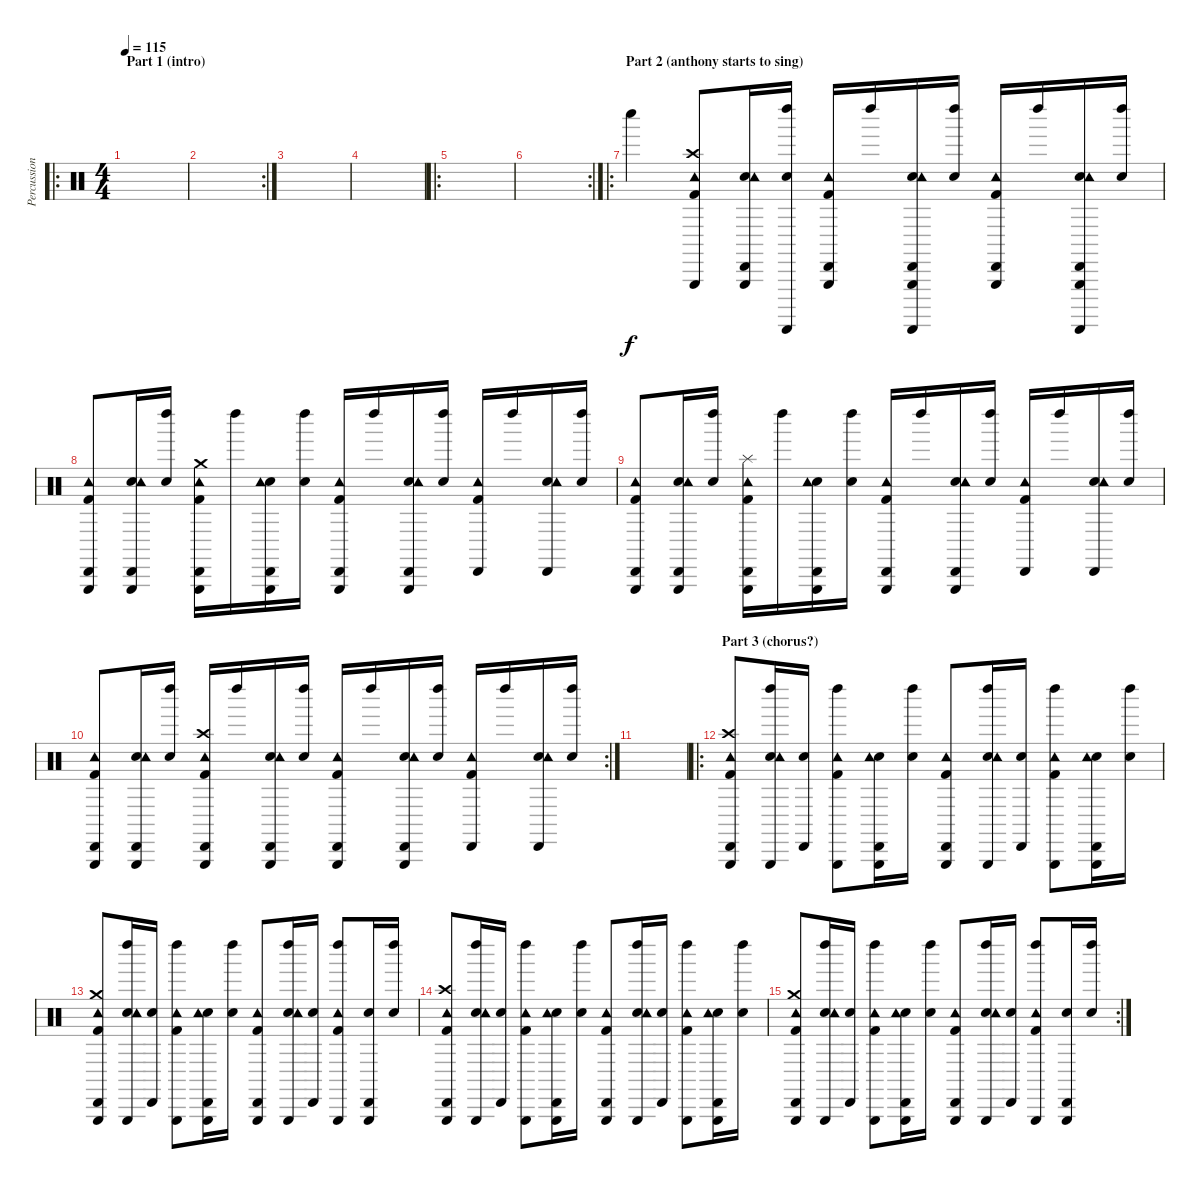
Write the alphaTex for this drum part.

\track ("Percussion" "Percussion") {instrument percussion}
\staff {score}
\articulation defaults
\ro
\ts (4 4)
\section ("" "Part 1 (intro)")
\tempo 115
\clef neutral
\ks c
|
\rc 2
|
|
|
\ro
|
\rc 2
|
\ro
\section ("" "Part 2 (anthony starts to sing)")
"Whistle low (hit)".4 ("Kick (hit) 2" "Tambourine (hit)" "Triangle (hit)" "Crash high (hit)").8 ("Cabasa (hit)" "Snare (hit) 2" "Tambourine (hit)" "Triangle (hit)").16 ("Left Maraca (hit)" "Snare (hit) 2" "Guiro (scrap-return)").16 ("Cabasa (hit)" "Kick (hit) 2" "Tambourine (hit)" "Triangle (hit)").16 "Left Maraca (hit)".16 ("Cabasa (hit)" "Snare (hit) 2" "Tambourine (hit)" "Triangle (hit)" "Guiro (scrap-return)").16 ("Left Maraca (hit)" "Snare (hit) 2").16 ("Cabasa (hit)" "Kick (hit) 2" "Tambourine (hit)" "Triangle (hit)").16 "Left Maraca (hit)".16 ("Cabasa (hit)" "Snare (hit) 2" "Tambourine (hit)" "Triangle (hit)" "Guiro (scrap-return)").16 ("Left Maraca (hit)" "Snare (hit) 2").16 |
("Kick (hit) 2" "Cabasa (hit)" "Tambourine (hit)" "Triangle (hit)").8 ("Cabasa (hit)" "Snare (hit) 2" "Tambourine (hit)" "Triangle (hit)").16 ("Left Maraca (hit)" "Snare (hit) 2").16 ("Cabasa (hit)" "Kick (hit) 2" "Tambourine (hit)" "Triangle (hit)" "Crash medium (hit)").16 "Left Maraca (hit)".16 ("Cabasa (hit)" "Snare (hit) 2" "Tambourine (hit)" "Triangle (hit)").16 ("Left Maraca (hit)" "Snare (hit) 2").16 ("Cabasa (hit)" "Kick (hit) 2" "Tambourine (hit)" "Triangle (hit)").16 "Left Maraca (hit)".16 ("Cabasa (hit)" "Snare (hit) 2" "Tambourine (hit)" "Triangle (hit)").16 ("Left Maraca (hit)" "Snare (hit) 2").16 ("Cabasa (hit)" "Kick (hit) 2" "Tambourine (hit)").16 "Left Maraca (hit)".16 ("Cabasa (hit)" "Snare (hit) 2" "Tambourine (hit)").16 ("Left Maraca (hit)" "Snare (hit) 2").16 |
("Kick (hit) 2" "Cabasa (hit)" "Tambourine (hit)" "Triangle (hit)").8 ("Cabasa (hit)" "Snare (hit) 2" "Tambourine (hit)" "Triangle (hit)").16 ("Left Maraca (hit)" "Snare (hit) 2").16 ("Cabasa (hit)" "Kick (hit) 2" "Tambourine (hit)" "Triangle (hit)" "Splash (hit)").16 "Left Maraca (hit)".16 ("Cabasa (hit)" "Snare (hit) 2" "Tambourine (hit)" "Triangle (hit)").16 ("Left Maraca (hit)" "Snare (hit) 2").16 ("Cabasa (hit)" "Kick (hit) 2" "Tambourine (hit)" "Triangle (hit)").16 "Left Maraca (hit)".16 ("Cabasa (hit)" "Snare (hit) 2" "Tambourine (hit)" "Triangle (hit)").16 ("Left Maraca (hit)" "Snare (hit) 2").16 ("Cabasa (hit)" "Kick (hit) 2" "Tambourine (hit)").16 "Left Maraca (hit)".16 ("Cabasa (hit)" "Snare (hit) 2" "Tambourine (hit)").16 ("Left Maraca (hit)" "Snare (hit) 2").16 |
\rc 2
("Kick (hit) 2" "Cabasa (hit)" "Tambourine (hit)" "Triangle (hit)").8 ("Cabasa (hit)" "Snare (hit) 2" "Tambourine (hit)" "Triangle (hit)").16 ("Left Maraca (hit)" "Snare (hit) 2").16 ("Cabasa (hit)" "Kick (hit) 2" "Tambourine (hit)" "Triangle (hit)" "Crash high (hit)").16 "Left Maraca (hit)".16 ("Cabasa (hit)" "Snare (hit) 2" "Tambourine (hit)" "Triangle (hit)").16 ("Left Maraca (hit)" "Snare (hit) 2").16 ("Cabasa (hit)" "Kick (hit) 2" "Tambourine (hit)" "Triangle (hit)").16 "Left Maraca (hit)".16 ("Cabasa (hit)" "Snare (hit) 2" "Tambourine (hit)" "Triangle (hit)").16 ("Left Maraca (hit)" "Snare (hit) 2").16 ("Cabasa (hit)" "Kick (hit) 2" "Tambourine (hit)").16 "Left Maraca (hit)".16 ("Cabasa (hit)" "Snare (hit) 2" "Tambourine (hit)").16 ("Left Maraca (hit)" "Snare (hit) 2").16 |
|
\ro
\section ("" "Part 3 (chorus?)")
("Kick (hit) 2" "Cabasa (hit)" "Tambourine (hit)" "Triangle (hit)" "Crash high (hit)").8 ("Snare (hit) 2" "Left Maraca (hit)" "Tambourine (hit)" "Triangle (hit)").16 ("Snare (hit) 2" "Cabasa (hit)").16 ("Kick (hit) 2" "Left Maraca (hit)" "Tambourine (hit)" "Triangle (hit)").8 ("Snare (hit) 2" "Cabasa (hit)" "Tambourine (hit)" "Triangle (hit)").16 ("Snare (hit) 2" "Left Maraca (hit)").16 ("Kick (hit) 2" "Cabasa (hit)" "Tambourine (hit)" "Triangle (hit)").8 ("Snare (hit) 2" "Left Maraca (hit)" "Tambourine (hit)" "Triangle (hit)").16 ("Snare (hit) 2" "Cabasa (hit)").16 ("Kick (hit) 2" "Left Maraca (hit)" "Tambourine (hit)" "Triangle (hit)").8 ("Snare (hit) 2" "Cabasa (hit)" "Tambourine (hit)" "Triangle (hit)").16 ("Snare (hit) 2" "Left Maraca (hit)").16 |
("Kick (hit) 2" "Cabasa (hit)" "Tambourine (hit)" "Triangle (hit)" "Crash medium (hit)").8 ("Snare (hit) 2" "Left Maraca (hit)" "Tambourine (hit)" "Triangle (hit)").16 ("Snare (hit) 2" "Cabasa (hit)").16 ("Kick (hit) 2" "Left Maraca (hit)" "Tambourine (hit)" "Triangle (hit)").8 ("Snare (hit) 2" "Cabasa (hit)" "Tambourine (hit)" "Triangle (hit)").16 ("Snare (hit) 2" "Left Maraca (hit)").16 ("Kick (hit) 2" "Cabasa (hit)" "Tambourine (hit)" "Triangle (hit)").8 ("Snare (hit) 2" "Left Maraca (hit)" "Tambourine (hit)" "Triangle (hit)").16 ("Snare (hit) 2" "Cabasa (hit)").16 ("Kick (hit) 2" "Left Maraca (hit)" "Tambourine (hit)" "Triangle (hit)").8 ("Snare (hit) 2" "Cabasa (hit)" "Triangle (hit)").16 ("Snare (hit) 2" "Left Maraca (hit)").16 |
("Kick (hit) 2" "Cabasa (hit)" "Tambourine (hit)" "Triangle (hit)" "Crash high (hit)").8 ("Snare (hit) 2" "Left Maraca (hit)" "Tambourine (hit)" "Triangle (hit)").16 ("Snare (hit) 2" "Cabasa (hit)").16 ("Kick (hit) 2" "Left Maraca (hit)" "Tambourine (hit)" "Triangle (hit)").8 ("Snare (hit) 2" "Cabasa (hit)" "Tambourine (hit)" "Triangle (hit)").16 ("Snare (hit) 2" "Left Maraca (hit)").16 ("Kick (hit) 2" "Cabasa (hit)" "Tambourine (hit)" "Triangle (hit)").8 ("Snare (hit) 2" "Left Maraca (hit)" "Tambourine (hit)" "Triangle (hit)").16 ("Snare (hit) 2" "Cabasa (hit)").16 ("Kick (hit) 2" "Left Maraca (hit)" "Tambourine (hit)" "Triangle (hit)").8 ("Snare (hit) 2" "Cabasa (hit)" "Tambourine (hit)" "Triangle (hit)").16 ("Snare (hit) 2" "Left Maraca (hit)").16 |
\rc 2
("Kick (hit) 2" "Cabasa (hit)" "Tambourine (hit)" "Triangle (hit)" "Crash medium (hit)").8 ("Snare (hit) 2" "Left Maraca (hit)" "Tambourine (hit)" "Triangle (hit)").16 ("Snare (hit) 2" "Cabasa (hit)").16 ("Kick (hit) 2" "Left Maraca (hit)" "Tambourine (hit)" "Triangle (hit)").8 ("Snare (hit) 2" "Cabasa (hit)" "Tambourine (hit)" "Triangle (hit)").16 ("Snare (hit) 2" "Left Maraca (hit)").16 ("Kick (hit) 2" "Cabasa (hit)" "Tambourine (hit)" "Triangle (hit)").8 ("Snare (hit) 2" "Left Maraca (hit)" "Tambourine (hit)" "Triangle (hit)").16 ("Snare (hit) 2" "Cabasa (hit)").16 ("Kick (hit) 2" "Left Maraca (hit)" "Tambourine (hit)" "Triangle (hit)").8 ("Snare (hit) 2" "Cabasa (hit)" "Triangle (hit)").16 ("Snare (hit) 2" "Left Maraca (hit)").16
